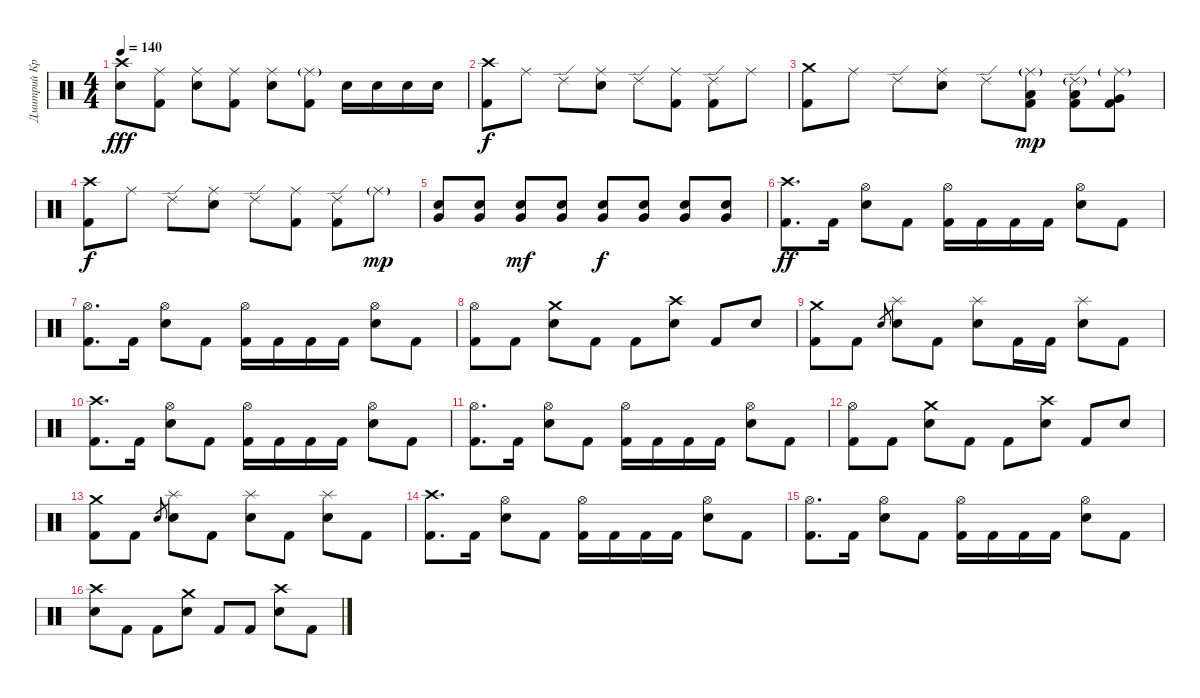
\track ("Дмитрий Кривенков" "Дмитрий Кр") {instrument percussion}
\staff {score}
\articulation defaults
\ts (4 4)
\tempo 140
\clef neutral
\ks c
("Crash high (hit)" "Electric Snare (hit)").8{dy fff} ("Ride (middle)" "Kick (hit) 2").8 ("Ride (middle)" "Electric Snare (hit)").8 ("Ride (middle)" "Kick (hit) 2").8 ("Ride (middle)" "Electric Snare (hit)").8 ("Ride (middle)"{g} "Kick (hit) 2").8 "Electric Snare (hit)".16 "Electric Snare (hit)".16 "Electric Snare (hit)".16 "Electric Snare (hit)".16 |
("Crash high (hit)" "Kick (hit) 2").8{dy f} "Ride (middle)".8 "Ride (edge) 2".8 ("Ride (middle)" "Electric Snare (hit)").8 "Ride (edge) 2".8 ("Ride (middle)" "Kick (hit) 2").8 ("Ride (edge) 2" "Kick (hit) 2").8 "Ride (middle)".8 |
("Crash medium (hit)" "Kick (hit) 2").8 "Ride (middle)".8 "Ride (edge) 2".8 ("Ride (middle)" "Electric Snare (hit)").8 "Ride (edge) 2".8 ("Ride (middle)"{g} "Low Floor Tom (hit)" "Kick (hit) 2").8{dy mp} ("Ride (edge) 2"{g} "Low Tom (hit)" "Kick (hit) 2").8 ("Ride (middle)"{g} "Very Low Tom (hit)" "Kick (hit) 2").8 |
("Crash high (hit)" "Kick (hit) 2").8{dy f} "Ride (middle)".8 "Ride (edge) 2".8 ("Ride (middle)" "Electric Snare (hit)").8 "Ride (edge) 2".8 ("Ride (middle)" "Kick (hit) 2").8 ("Ride (edge) 2" "Kick (hit) 2").8 "Ride (middle)"{g}.8{dy mp} |
("Electric Snare (hit)" "Very Low Tom (hit)").8 ("Electric Snare (hit)" "Very Low Tom (hit)").8 ("Electric Snare (hit)" "Very Low Tom (hit)").8{dy mf} ("Electric Snare (hit)" "Very Low Tom (hit)").8 ("Electric Snare (hit)" "Very Low Tom (hit)").8{dy f} ("Electric Snare (hit)" "Very Low Tom (hit)").8 ("Electric Snare (hit)" "Very Low Tom (hit)").8 ("Electric Snare (hit)" "Very Low Tom (hit)").8 |
("Crash high (hit)" "Kick (hit) 2").8{d dy ff} "Kick (hit) 2".16 ("Hi-Hat (open)" "Electric Snare (hit)").8 "Kick (hit) 2".8 ("Hi-Hat (open)" "Kick (hit) 2").16 "Kick (hit) 2".16 "Kick (hit) 2".16 "Kick (hit) 2".16 ("Hi-Hat (open)" "Electric Snare (hit)").8 "Kick (hit) 2".8 |
("Hi-Hat (open)" "Kick (hit) 2").8{d} "Kick (hit) 2".16 ("Hi-Hat (open)" "Electric Snare (hit)").8 "Kick (hit) 2".8 ("Hi-Hat (open)" "Kick (hit) 2").16 "Kick (hit) 2".16 "Kick (hit) 2".16 "Kick (hit) 2".16 ("Hi-Hat (open)" "Electric Snare (hit)").8 "Kick (hit) 2".8 |
("Hi-Hat (open)" "Kick (hit) 2").8 "Kick (hit) 2".8 ("Crash medium (hit)" "Electric Snare (hit)").8 "Kick (hit) 2".8 "Kick (hit) 2".8 ("Crash high (hit)" "Electric Snare (hit)").8 "Kick (hit) 2".8 "Electric Snare (hit)".8 |
("Crash medium (hit)" "Kick (hit) 2").8 "Kick (hit) 2".8 "Electric Snare (hit)".8{gr} ("Splash (hit)" "Electric Snare (hit)").8 "Kick (hit) 2".8 ("Splash (hit)" "Electric Snare (hit)").8 "Kick (hit) 2".16 "Kick (hit) 2".16 ("Splash (hit)" "Electric Snare (hit)").8 "Kick (hit) 2".8 |
("Crash high (hit)" "Kick (hit) 2").8{d} "Kick (hit) 2".16 ("Hi-Hat (open)" "Electric Snare (hit)").8 "Kick (hit) 2".8 ("Hi-Hat (open)" "Kick (hit) 2").16 "Kick (hit) 2".16 "Kick (hit) 2".16 "Kick (hit) 2".16 ("Hi-Hat (open)" "Electric Snare (hit)").8 "Kick (hit) 2".8 |
("Hi-Hat (open)" "Kick (hit) 2").8{d} "Kick (hit) 2".16 ("Hi-Hat (open)" "Electric Snare (hit)").8 "Kick (hit) 2".8 ("Hi-Hat (open)" "Kick (hit) 2").16 "Kick (hit) 2".16 "Kick (hit) 2".16 "Kick (hit) 2".16 ("Hi-Hat (open)" "Electric Snare (hit)").8 "Kick (hit) 2".8 |
("Hi-Hat (open)" "Kick (hit) 2").8 "Kick (hit) 2".8 ("Crash medium (hit)" "Electric Snare (hit)").8 "Kick (hit) 2".8 "Kick (hit) 2".8 ("Crash high (hit)" "Electric Snare (hit)").8 "Kick (hit) 2".8 "Electric Snare (hit)".8 |
("Crash medium (hit)" "Kick (hit) 2").8 "Kick (hit) 2".8 "Electric Snare (hit)".8{gr} ("Splash (hit)" "Electric Snare (hit)").8 "Kick (hit) 2".8 ("Splash (hit)" "Electric Snare (hit)").8 "Kick (hit) 2".8 ("Splash (hit)" "Electric Snare (hit)").8 "Kick (hit) 2".8 |
("Crash high (hit)" "Kick (hit) 2").8{d} "Kick (hit) 2".16 ("Hi-Hat (open)" "Electric Snare (hit)").8 "Kick (hit) 2".8 ("Hi-Hat (open)" "Kick (hit) 2").16 "Kick (hit) 2".16 "Kick (hit) 2".16 "Kick (hit) 2".16 ("Hi-Hat (open)" "Electric Snare (hit)").8 "Kick (hit) 2".8 |
("Hi-Hat (open)" "Kick (hit) 2").8{d} "Kick (hit) 2".16 ("Hi-Hat (open)" "Electric Snare (hit)").8 "Kick (hit) 2".8 ("Hi-Hat (open)" "Kick (hit) 2").16 "Kick (hit) 2".16 "Kick (hit) 2".16 "Kick (hit) 2".16 ("Hi-Hat (open)" "Electric Snare (hit)").8 "Kick (hit) 2".8 |
("Crash high (hit)" "Electric Snare (hit)").8 "Kick (hit) 2".8 "Kick (hit) 2".8 ("Crash medium (hit)" "Electric Snare (hit)").8 "Kick (hit) 2".8 "Kick (hit) 2".8 ("Crash high (hit)" "Electric Snare (hit)").8 "Kick (hit) 2".8
